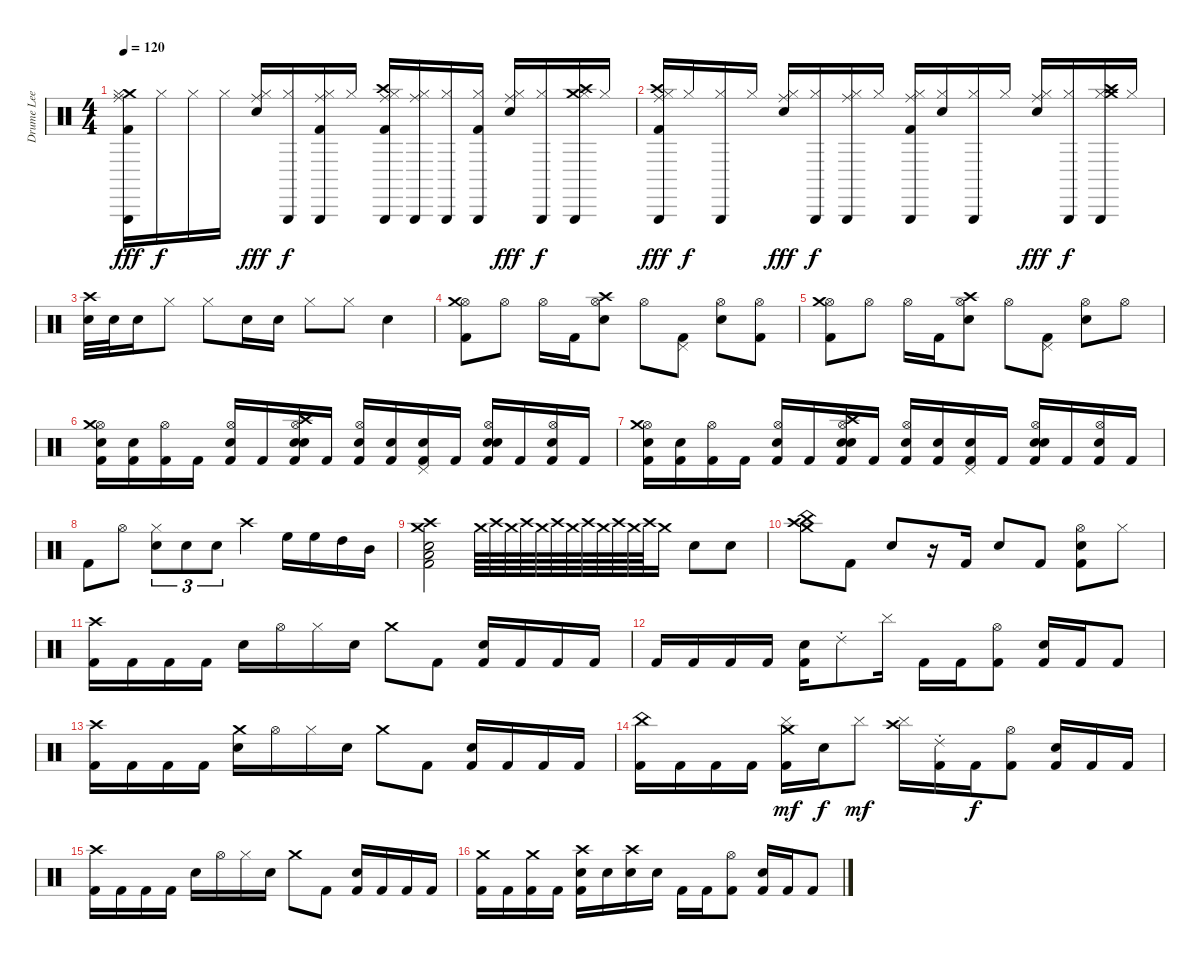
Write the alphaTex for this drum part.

\track ("Drume Lee Jhones" "Drume Lee ") {instrument percussion}
\staff {score}
\articulation defaults
\ts (4 4)
\tempo 120
\clef neutral
\ks c
("Crash medium (hit)" "Hi-Hat (closed)" "Ride (middle)" "Triangle (hit)" "Kick (hit) 2").16{dy fff} "Hi-Hat (closed)".16{dy f} "Hi-Hat (closed)".16 "Hi-Hat (closed)".16 ("Hi-Hat (closed)" "Ride (middle)" "Snare (hit) 2").16{dy fff} ("Hi-Hat (closed)" "Triangle (hit)").16{dy f} ("Hi-Hat (closed)" "Ride (middle)" "Triangle (hit)" "Kick (hit) 2").16 "Hi-Hat (closed)".16 ("Crash high (hit)" "Hi-Hat (closed)" "Ride (middle)" "Triangle (hit)" "Kick (hit) 2").16 ("Hi-Hat (closed)" "Ride (middle)" "Triangle (hit)").16 ("Hi-Hat (closed)" "Triangle (hit)").16 ("Hi-Hat (closed)" "Triangle (hit)" "Kick (hit) 2").16 ("Hi-Hat (closed)" "Ride (middle)" "Snare (hit) 2").16{dy fff} ("Hi-Hat (closed)" "Triangle (hit)").16{dy f} ("Crash medium (hit)" "Hi-Hat (closed)" "Crash high (hit)" "Triangle (hit)").16 "Hi-Hat (closed)".16 |
("Crash high (hit)" "Hi-Hat (closed)" "Ride (middle)" "Triangle (hit)" "Kick (hit) 2").16{dy fff} "Hi-Hat (closed)".16{dy f} ("Hi-Hat (closed)" "Triangle (hit)").16 "Hi-Hat (closed)".16 ("Hi-Hat (closed)" "Ride (middle)" "Snare (hit) 2").16{dy fff} ("Hi-Hat (closed)" "Triangle (hit)").16{dy f} ("Hi-Hat (closed)" "Ride (middle)" "Triangle (hit)").16 "Hi-Hat (closed)".16 ("Hi-Hat (closed)" "Ride (middle)" "Triangle (hit)" "Kick (hit) 2").16 ("Hi-Hat (closed)" "Snare (hit)").16 ("Hi-Hat (closed)" "Triangle (hit)").16 "Hi-Hat (closed)".16 ("Hi-Hat (closed)" "Ride (middle)" "Snare (hit) 2").16{dy fff} ("Hi-Hat (closed)" "Triangle (hit)").16{dy f} ("Crash high (hit)" "Hi-Hat (closed)" "Crash medium (hit)" "Triangle (hit)").16 "Hi-Hat (closed)".16 |
("Crash high (hit)" "Snare (hit) 2").32 "Snare (hit) 2".32 "Snare (hit) 2".16 "Hi-Hat (closed)".8 "Hi-Hat (closed)".8 "Snare (hit) 2".16 "Snare (hit) 2".16 "Hi-Hat (closed)".8 "Hi-Hat (closed)".8 "Snare (hit) 2".4 |
("Hi-Hat (open)" "Crash medium (hit)" "Kick (hit) 2").8 "Hi-Hat (open)".8 "Hi-Hat (open)".16 "Kick (hit) 2".16 ("Hi-Hat (open)" "Crash high (hit)" "Snare (hit) 2").8 "Hi-Hat (open)".8 ("Pedal Hi-Hat (hit)" "Kick (hit) 2").8 ("Hi-Hat (open)" "Snare (hit) 2").8 ("Hi-Hat (open)" "Kick (hit) 2").8 |
("Hi-Hat (open)" "Crash medium (hit)" "Kick (hit) 2").8 "Hi-Hat (open)".8 "Hi-Hat (open)".16 "Kick (hit) 2".16 ("Hi-Hat (open)" "Crash high (hit)" "Snare (hit) 2").8 "Hi-Hat (open)".8 ("Pedal Hi-Hat (hit)" "Kick (hit) 2").8 ("Hi-Hat (open)" "Snare (hit) 2").8 "Hi-Hat (open)".8 |
("Hi-Hat (open)" "Crash medium (hit)" "Metronome (bell)" "Kick (hit) 2").16 ("Metronome (bell)" "Kick (hit) 2").16 ("Hi-Hat (open)" "Kick (hit) 2").16 "Kick (hit) 2".16 ("Hi-Hat (open)" "Metronome (bell)" "Kick (hit) 2").16 "Kick (hit) 2".16 ("Hi-Hat (open)" "Crash high (hit)" "Snare (hit) 2" "Metronome (bell)" "Kick (hit) 2").16 "Kick (hit) 2".16 ("Hi-Hat (open)" "Metronome (bell)" "Kick (hit) 2").16 ("Metronome (bell)" "Kick (hit) 2").16 ("Pedal Hi-Hat (hit)" "Metronome (bell)" "Kick (hit) 2").16 "Kick (hit) 2".16 ("Hi-Hat (open)" "Snare (hit) 2" "Metronome (bell)" "Kick (hit) 2").16 "Kick (hit) 2".16 ("Hi-Hat (open)" "Metronome (bell)" "Kick (hit) 2").16 "Kick (hit) 2".16 |
("Hi-Hat (open)" "Crash medium (hit)" "Metronome (bell)" "Kick (hit) 2").16 ("Metronome (bell)" "Kick (hit) 2").16 ("Hi-Hat (open)" "Kick (hit) 2").16 "Kick (hit) 2".16 ("Hi-Hat (open)" "Metronome (bell)" "Kick (hit) 2").16 "Kick (hit) 2".16 ("Hi-Hat (open)" "Crash high (hit)" "Snare (hit) 2" "Metronome (bell)" "Kick (hit) 2").16 "Kick (hit) 2".16 ("Hi-Hat (open)" "Metronome (bell)" "Kick (hit) 2").16 ("Metronome (bell)" "Kick (hit) 2").16 ("Pedal Hi-Hat (hit)" "Metronome (bell)" "Kick (hit) 2").16 "Kick (hit) 2".16 ("Hi-Hat (open)" "Snare (hit) 2" "Metronome (bell)" "Kick (hit) 2").16 "Kick (hit) 2".16 ("Hi-Hat (open)" "Metronome (bell)" "Kick (hit) 2").16 "Kick (hit) 2".16 |
"Kick (hit) 2".8 "Hi-Hat (open)".8 ("Hi-Hat (closed)" "Snare (hit) 2").8{tu (3 2)} "Snare (hit) 2".8{tu (3 2)} "Snare (hit) 2".8{tu (3 2)} "Crash high (hit)".4 "High Floor Tom (hit)".16 "High Floor Tom (hit)".16 "High Tom (hit)".16 "Mid Tom (hit)".16 |
("Crash high (hit)" "Kick (hit) 2" "Snare (hit) 2" "Low Tom (hit)" "Crash medium (hit)").2 "Crash medium (hit)".64{volume 9} "Crash high (hit)".64{volume 13} "Crash medium (hit)".64 "Crash high (hit)".64 "Crash medium (hit)".64 "Crash high (hit)".64 "Crash medium (hit)".64 "Crash high (hit)".64 "Crash medium (hit)".64 "Crash high (hit)".64 "Crash medium (hit)".64 "Crash high (hit)".64 "Crash medium (hit)".16 "Snare (hit) 2".8 "Snare (hit) 2".8 |
("Crash high (hit)" "Crash medium (hit)" "China (hit)").8 "Kick (hit) 2".8 "Snare (hit) 2".8 r.16 "Kick (hit) 2".16 "Electric Snare (hit)".8 "Kick (hit) 2".8 ("Hi-Hat (open)" "Electric Snare (hit)" "Kick (hit) 2").8 "Hi-Hat (closed)".8 |
("Crash high (hit)" "Kick (hit) 2").16 "Kick (hit) 2".16 "Kick (hit) 2".16 "Kick (hit) 2".16 "Electric Snare (hit)".16 "Hi-Hat (open)".16 "Hi-Hat (closed)".16 "Electric Snare (hit)".16 "Crash medium (hit)".8 "Kick (hit) 2".8 ("Electric Snare (hit)" "Kick (hit) 2").16 "Kick (hit) 2".16 "Kick (hit) 2".16 "Kick (hit) 2".16 |
"Kick (hit) 2".16 "Kick (hit) 2".16 "Kick (hit) 2".16 "Kick (hit) 2".16 ("Electric Snare (hit)" "Kick (hit) 2").16 "Ride (choke) 2".8 "Cymbal (hit)".16 "Kick (hit) 2".16 "Kick (hit) 2".16 ("Hi-Hat (open)" "Kick (hit) 2").8 ("Electric Snare (hit)" "Kick (hit) 2").16 "Kick (hit) 2".16 "Kick (hit) 2".8 |
("Crash high (hit)" "Kick (hit) 2").16 "Kick (hit) 2".16 "Kick (hit) 2".16 "Kick (hit) 2".16 ("Crash medium (hit)" "Electric Snare (hit)").16 "Hi-Hat (open)".16 "Hi-Hat (closed)".16 "Electric Snare (hit)".16 "Crash medium (hit)".8 "Kick (hit) 2".8 ("Electric Snare (hit)" "Kick (hit) 2").16 "Kick (hit) 2".16 "Kick (hit) 2".16 "Kick (hit) 2".16 |
("China (hit)" "Kick (hit) 2").16 "Kick (hit) 2".16 "Kick (hit) 2".16 "Kick (hit) 2".16 ("Crash medium (hit)" "Cymbal (hit)" "Kick (hit) 2").16{dy mf} "Electric Snare (hit)".16{dy f} "Cymbal (hit)".8{dy mf} ("Crash high (hit)" "Cymbal (hit)").16 ("Ride (choke) 2" "Kick (hit) 2").16 "Kick (hit) 2".16{dy f} ("Hi-Hat (open)" "Kick (hit) 2").8 ("Electric Snare (hit)" "Kick (hit) 2").16 "Kick (hit) 2".16 "Kick (hit) 2".16 |
("Crash high (hit)" "Kick (hit) 2").16 "Kick (hit) 2".16 "Kick (hit) 2".16 "Kick (hit) 2".16 "Electric Snare (hit)".16 "Hi-Hat (open)".16 "Hi-Hat (closed)".16 "Electric Snare (hit)".16 "Crash medium (hit)".8 "Kick (hit) 2".8 ("Electric Snare (hit)" "Kick (hit) 2").16 "Kick (hit) 2".16 "Kick (hit) 2".16 "Kick (hit) 2".16 |
("Crash medium (hit)" "Kick (hit) 2").16 "Kick (hit) 2".16 ("Crash medium (hit)" "Kick (hit) 2").16 "Kick (hit) 2".16 ("Crash high (hit)" "Electric Snare (hit)" "Kick (hit) 2").16 "Electric Snare (hit)".16 ("Crash high (hit)" "Electric Snare (hit)").16 "Electric Snare (hit)".16 "Kick (hit) 2".16 "Kick (hit) 2".16 ("Hi-Hat (open)" "Kick (hit) 2").8 ("Electric Snare (hit)" "Kick (hit) 2").16 "Kick (hit) 2".16 "Kick (hit) 2".8
